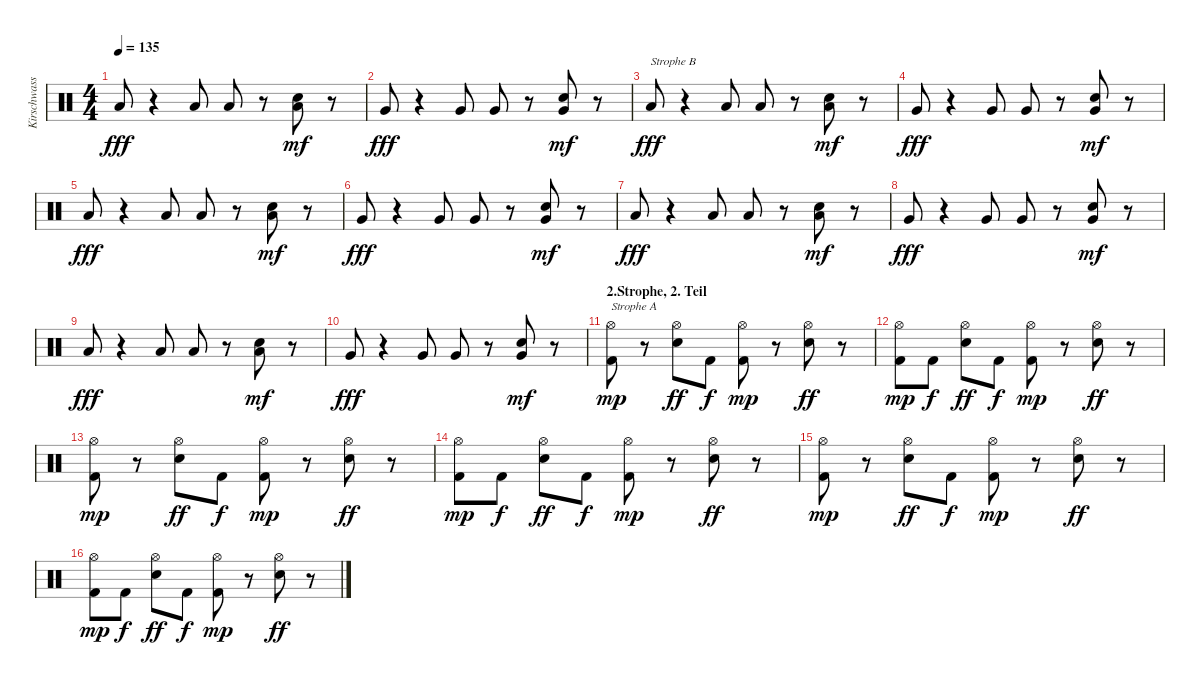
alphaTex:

\track ("Kirschwasserkönig" "Kirschwass") {instrument percussion}
\staff {score}
\articulation defaults
\ts (4 4)
\tempo 135
\clef neutral
\ks c "Low Floor Tom (hit)".8{dy fff}
r.4 "Low Floor Tom (hit)".8 "Low Floor Tom (hit)".8 r.8 ("Electric Snare (hit)" "Low Floor Tom (hit)").8{dy mf} r.8 |
"Very Low Tom (hit)".8{dy fff} r.4 "Very Low Tom (hit)".8 "Very Low Tom (hit)".8 r.8 ("Electric Snare (hit)" "Very Low Tom (hit)").8{dy mf} r.8 |
"Low Floor Tom (hit)".8{txt "Strophe B" dy fff} r.4 "Low Floor Tom (hit)".8 "Low Floor Tom (hit)".8 r.8 ("Electric Snare (hit)" "Low Floor Tom (hit)").8{dy mf} r.8 |
"Very Low Tom (hit)".8{dy fff} r.4 "Very Low Tom (hit)".8 "Very Low Tom (hit)".8 r.8 ("Electric Snare (hit)" "Very Low Tom (hit)").8{dy mf} r.8 |
"Low Floor Tom (hit)".8{dy fff} r.4 "Low Floor Tom (hit)".8 "Low Floor Tom (hit)".8 r.8 ("Electric Snare (hit)" "Low Floor Tom (hit)").8{dy mf} r.8 |
"Very Low Tom (hit)".8{dy fff} r.4 "Very Low Tom (hit)".8 "Very Low Tom (hit)".8 r.8 ("Electric Snare (hit)" "Very Low Tom (hit)").8{dy mf} r.8 |
"Low Floor Tom (hit)".8{dy fff} r.4 "Low Floor Tom (hit)".8 "Low Floor Tom (hit)".8 r.8 ("Electric Snare (hit)" "Low Floor Tom (hit)").8{dy mf} r.8 |
"Very Low Tom (hit)".8{dy fff} r.4 "Very Low Tom (hit)".8 "Very Low Tom (hit)".8 r.8 ("Electric Snare (hit)" "Very Low Tom (hit)").8{dy mf} r.8 |
"Low Floor Tom (hit)".8{dy fff} r.4 "Low Floor Tom (hit)".8 "Low Floor Tom (hit)".8 r.8 ("Electric Snare (hit)" "Low Floor Tom (hit)").8{dy mf} r.8 |
"Very Low Tom (hit)".8{dy fff} r.4 "Very Low Tom (hit)".8 "Very Low Tom (hit)".8 r.8 ("Electric Snare (hit)" "Very Low Tom (hit)").8{dy mf} r.8 |
\section ("" "2.Strophe, 2. Teil")
("Hi-Hat (open)" "Kick (hit) 2").8{txt "Strophe A" dy mp} r.8 ("Hi-Hat (open)" "Electric Snare (hit)").8{dy ff} "Kick (hit) 2".8{dy f} ("Hi-Hat (open)" "Kick (hit) 2").8{dy mp} r.8 ("Hi-Hat (open)" "Electric Snare (hit)").8{dy ff} r.8 |
("Hi-Hat (open)" "Kick (hit) 2").8{dy mp} "Kick (hit) 2".8{dy f} ("Hi-Hat (open)" "Electric Snare (hit)").8{dy ff} "Kick (hit) 2".8{dy f} ("Hi-Hat (open)" "Kick (hit) 2").8{dy mp} r.8 ("Hi-Hat (open)" "Electric Snare (hit)").8{dy ff} r.8 |
("Hi-Hat (open)" "Kick (hit) 2").8{dy mp} r.8 ("Hi-Hat (open)" "Electric Snare (hit)").8{dy ff} "Kick (hit) 2".8{dy f} ("Hi-Hat (open)" "Kick (hit) 2").8{dy mp} r.8 ("Hi-Hat (open)" "Electric Snare (hit)").8{dy ff} r.8 |
("Hi-Hat (open)" "Kick (hit) 2").8{dy mp} "Kick (hit) 2".8{dy f} ("Hi-Hat (open)" "Electric Snare (hit)").8{dy ff} "Kick (hit) 2".8{dy f} ("Hi-Hat (open)" "Kick (hit) 2").8{dy mp} r.8 ("Hi-Hat (open)" "Electric Snare (hit)").8{dy ff} r.8 |
("Hi-Hat (open)" "Kick (hit) 2").8{dy mp} r.8 ("Hi-Hat (open)" "Electric Snare (hit)").8{dy ff} "Kick (hit) 2".8{dy f} ("Hi-Hat (open)" "Kick (hit) 2").8{dy mp} r.8 ("Hi-Hat (open)" "Electric Snare (hit)").8{dy ff} r.8 |
("Hi-Hat (open)" "Kick (hit) 2").8{dy mp} "Kick (hit) 2".8{dy f} ("Hi-Hat (open)" "Electric Snare (hit)").8{dy ff} "Kick (hit) 2".8{dy f} ("Hi-Hat (open)" "Kick (hit) 2").8{dy mp} r.8 ("Hi-Hat (open)" "Electric Snare (hit)").8{dy ff} r.8
